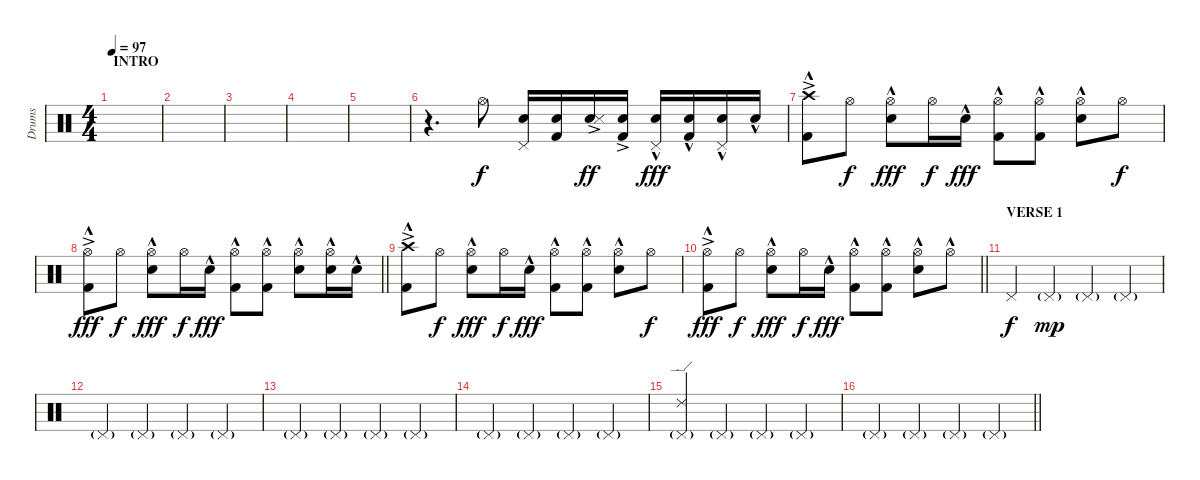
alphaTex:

\track ("Drums" "Drums") {instrument percussion}
\staff {score}
\articulation defaults
\ts (4 4)
\section ("" "INTRO")
\tempo 97
\clef neutral
\ks c
|
|
|
|
|
r.4{d volume 16} "Hi-Hat (open)".8 ("Snare (hit) 2" "Pedal Hi-Hat (hit)").16{dy f} ("Snare (hit) 2" "Kick (hit) 2").16 ("Snare (hit) 2"{ac} "Metronome (hit)").16{dy ff} ("Snare (hit) 2"{ac} "Kick (hit) 2").16 ("Snare (hit) 2"{hac} "Pedal Hi-Hat (hit)").16{dy fff} ("Snare (hit) 2"{hac} "Kick (hit) 2").16 ("Snare (hit) 2"{hac} "Pedal Hi-Hat (hit)").16 "Snare (hit) 2"{hac}.16 |
("Crash high (hit)"{ac} "Kick (hit) 2"{hac}).8 "Hi-Hat (open)".8{dy f} ("Hi-Hat (open)" "Snare (hit) 2"{hac}).8{dy fff} "Hi-Hat (open)".16{dy f} "Snare (hit) 2"{hac}.16{dy fff} ("Hi-Hat (open)" "Kick (hit) 2"{hac}).8 ("Hi-Hat (open)" "Kick (hit) 2"{hac}).8 ("Hi-Hat (open)" "Snare (hit) 2"{hac}).8 "Hi-Hat (open)".8{dy f} |
\barLineRight lightlight
("Hi-Hat (open)"{ac} "Kick (hit) 2"{hac}).8{dy fff} "Hi-Hat (open)".8{dy f} ("Hi-Hat (open)" "Snare (hit) 2"{hac}).8{dy fff} "Hi-Hat (open)".16{dy f} "Snare (hit) 2"{hac}.16{dy fff} ("Hi-Hat (open)" "Kick (hit) 2"{hac}).8 ("Hi-Hat (open)" "Kick (hit) 2"{hac}).8 ("Hi-Hat (open)" "Snare (hit) 2"{hac}).8 ("Hi-Hat (open)" "Snare (hit) 2"{hac}).16 "Snare (hit) 2"{hac}.16 |
("Crash high (hit)"{ac} "Kick (hit) 2"{hac}).8 "Hi-Hat (open)".8{dy f} ("Hi-Hat (open)" "Snare (hit) 2"{hac}).8{dy fff} "Hi-Hat (open)".16{dy f} "Snare (hit) 2"{hac}.16{dy fff} ("Hi-Hat (open)" "Kick (hit) 2"{hac}).8 ("Hi-Hat (open)" "Kick (hit) 2"{hac}).8 ("Hi-Hat (open)" "Snare (hit) 2"{hac}).8 "Hi-Hat (open)".8{dy f} |
\barLineRight lightlight
("Hi-Hat (open)"{ac} "Kick (hit) 2"{hac}).8{dy fff} "Hi-Hat (open)".8{dy f} ("Hi-Hat (open)" "Snare (hit) 2"{hac}).8{dy fff} "Hi-Hat (open)".16{dy f} "Snare (hit) 2"{hac}.16{dy fff} ("Hi-Hat (open)" "Kick (hit) 2"{hac}).8 ("Hi-Hat (open)" "Kick (hit) 2"{hac}).8 ("Hi-Hat (open)" "Snare (hit) 2"{hac}).8 "Hi-Hat (open)"{hac}.8 |
\section ("" "VERSE 1")
"Pedal Hi-Hat (hit)".4{dy f} "Pedal Hi-Hat (hit)"{g}.4{dy mp} "Pedal Hi-Hat (hit)"{g}.4 "Pedal Hi-Hat (hit)"{g}.4 |
"Pedal Hi-Hat (hit)"{g}.4 "Pedal Hi-Hat (hit)"{g}.4 "Pedal Hi-Hat (hit)"{g}.4 "Pedal Hi-Hat (hit)"{g}.4 |
"Pedal Hi-Hat (hit)"{g}.4 "Pedal Hi-Hat (hit)"{g}.4 "Pedal Hi-Hat (hit)"{g}.4 "Pedal Hi-Hat (hit)"{g}.4 |
"Pedal Hi-Hat (hit)"{g}.4 "Pedal Hi-Hat (hit)"{g}.4 "Pedal Hi-Hat (hit)"{g}.4 "Pedal Hi-Hat (hit)"{g}.4 |
("Ride (edge) 2" "Pedal Hi-Hat (hit)"{g}).4 "Pedal Hi-Hat (hit)"{g}.4 "Pedal Hi-Hat (hit)"{g}.4 "Pedal Hi-Hat (hit)"{g}.4 |
\barLineRight lightlight "Pedal Hi-Hat (hit)"{g}.4 "Pedal Hi-Hat (hit)"{g}.4 "Pedal Hi-Hat (hit)"{g}.4 "Pedal Hi-Hat (hit)"{g}.4
